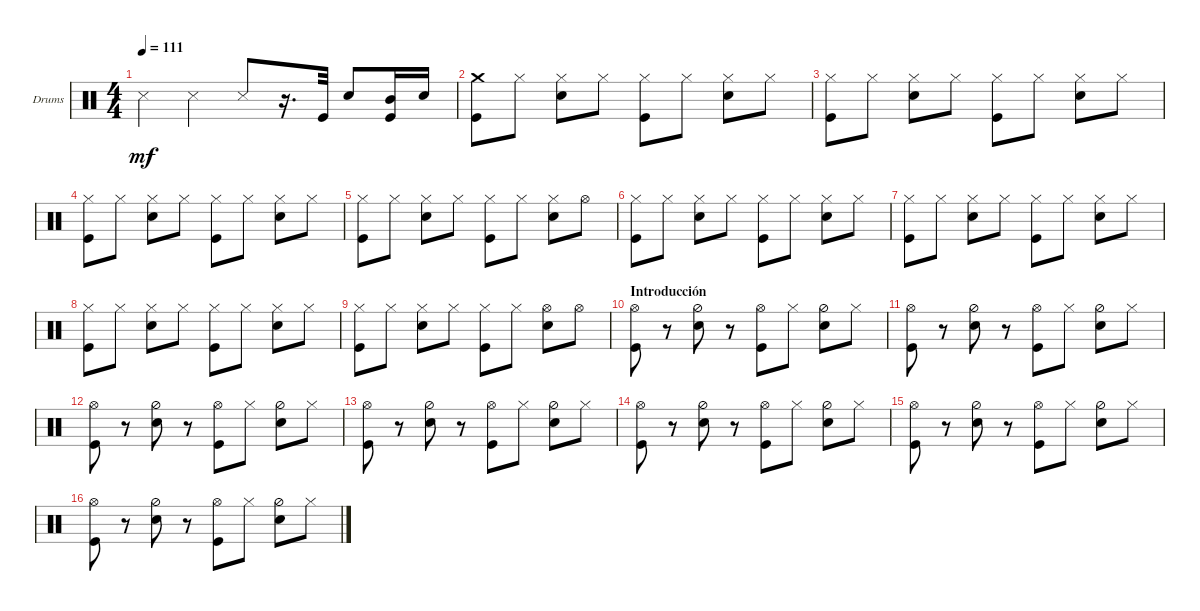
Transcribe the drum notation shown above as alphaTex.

\defaultSystemsLayout 4
\bracketExtendMode groupsimilarinstruments
\firstSystemTrackNameOrientation horizontal
\otherSystemsTrackNameOrientation horizontal
\track ("Drumkit" "Drums") {instrument percussion}
\staff {score}
\articulation defaults
\ts (4 4)
\tempo 111
\clef neutral
\scale
0.472222
\ks c "Snare (side stick) 3".4{dy mf} "Snare (side stick) 3".4 "Snare (side stick) 3".8
r.16{d} "Kick (hit)".32 "Snare (hit) 2".8 ("Mid Tom (hit)" "Kick (hit)").16 "Snare (hit) 2".16 |
\scale
0.263889 ("Kick (hit)" "Crash medium (hit)").8 "Hi-Hat (closed)".8 ("Snare (hit) 2" "Hi-Hat (closed)").8 "Hi-Hat (closed)".8 ("Kick (hit)" "Hi-Hat (closed)").8 "Hi-Hat (closed)".8 ("Snare (hit) 2" "Hi-Hat (closed)").8 "Hi-Hat (closed)".8 |
\scale
0.263889 ("Kick (hit)" "Hi-Hat (closed)").8 "Hi-Hat (closed)".8 ("Snare (hit) 2" "Hi-Hat (closed)").8 "Hi-Hat (closed)".8 ("Kick (hit)" "Hi-Hat (closed)").8 "Hi-Hat (closed)".8 ("Snare (hit) 2" "Hi-Hat (closed)").8 "Hi-Hat (closed)".8 |
\scale
0.333333 ("Kick (hit)" "Hi-Hat (closed)").8 "Hi-Hat (closed)".8 ("Snare (hit) 2" "Hi-Hat (closed)").8 "Hi-Hat (closed)".8 ("Kick (hit)" "Hi-Hat (closed)").8 "Hi-Hat (closed)".8 ("Snare (hit) 2" "Hi-Hat (closed)").8 "Hi-Hat (closed)".8 |
\scale
0.333333 ("Kick (hit)" "Hi-Hat (closed)").8 "Hi-Hat (closed)".8 ("Snare (hit) 2" "Hi-Hat (closed)").8 "Hi-Hat (closed)".8 ("Kick (hit)" "Hi-Hat (closed)").8 "Hi-Hat (closed)".8 ("Snare (hit) 2" "Hi-Hat (closed)").8 "Hi-Hat (open)".8 |
\scale
0.333333 ("Kick (hit)" "Hi-Hat (closed)").8 "Hi-Hat (closed)".8 ("Snare (hit) 2" "Hi-Hat (closed)").8 "Hi-Hat (closed)".8 ("Kick (hit)" "Hi-Hat (closed)").8 "Hi-Hat (closed)".8 ("Snare (hit) 2" "Hi-Hat (closed)").8 "Hi-Hat (closed)".8 |
\scale
0.333333 ("Kick (hit)" "Hi-Hat (closed)").8 "Hi-Hat (closed)".8 ("Snare (hit) 2" "Hi-Hat (closed)").8 "Hi-Hat (closed)".8 ("Kick (hit)" "Hi-Hat (closed)").8 "Hi-Hat (closed)".8 ("Snare (hit) 2" "Hi-Hat (closed)").8 "Hi-Hat (closed)".8 |
\scale
0.333333 ("Kick (hit)" "Hi-Hat (closed)").8 "Hi-Hat (closed)".8 ("Snare (hit) 2" "Hi-Hat (closed)").8 "Hi-Hat (closed)".8 ("Kick (hit)" "Hi-Hat (closed)").8 "Hi-Hat (closed)".8 ("Snare (hit) 2" "Hi-Hat (closed)").8 "Hi-Hat (closed)".8 |
\scale
0.333333 ("Kick (hit)" "Hi-Hat (closed)").8 "Hi-Hat (closed)".8 ("Snare (hit) 2" "Hi-Hat (closed)").8 "Hi-Hat (closed)".8 ("Kick (hit)" "Hi-Hat (closed)").8 "Hi-Hat (closed)".8 ("Snare (hit) 2" "Hi-Hat (open)").8 "Hi-Hat (open)".8 |
\section ("" "Introducción")
\scale
0.333333 ("Kick (hit)" "Hi-Hat (open)").8 r.8 ("Snare (hit) 2" "Hi-Hat (half)").8 r.8 ("Kick (hit)" "Hi-Hat (open)").8 "Hi-Hat (closed)".8 ("Snare (hit) 2" "Hi-Hat (half)").8 "Hi-Hat (closed)".8 |
\scale
0.333333 ("Kick (hit)" "Hi-Hat (open)").8 r.8 ("Snare (hit) 2" "Hi-Hat (half)").8 r.8 ("Kick (hit)" "Hi-Hat (open)").8 "Hi-Hat (closed)".8 ("Snare (hit) 2" "Hi-Hat (half)").8 "Hi-Hat (closed)".8 |
\scale
0.333333 ("Kick (hit)" "Hi-Hat (open)").8 r.8 ("Snare (hit) 2" "Hi-Hat (half)").8 r.8 ("Kick (hit)" "Hi-Hat (open)").8 "Hi-Hat (closed)".8 ("Snare (hit) 2" "Hi-Hat (half)").8 "Hi-Hat (closed)".8 |
\scale
0.333333 ("Kick (hit)" "Hi-Hat (open)").8 r.8 ("Snare (hit) 2" "Hi-Hat (half)").8 r.8 ("Kick (hit)" "Hi-Hat (open)").8 "Hi-Hat (closed)".8 ("Snare (hit) 2" "Hi-Hat (half)").8 "Hi-Hat (closed)".8 |
\scale
0.333333 ("Kick (hit)" "Hi-Hat (open)").8 r.8 ("Snare (hit) 2" "Hi-Hat (half)").8 r.8 ("Kick (hit)" "Hi-Hat (open)").8 "Hi-Hat (closed)".8 ("Snare (hit) 2" "Hi-Hat (half)").8 "Hi-Hat (closed)".8 |
\scale
0.333333 ("Kick (hit)" "Hi-Hat (open)").8 r.8 ("Snare (hit) 2" "Hi-Hat (half)").8 r.8 ("Kick (hit)" "Hi-Hat (open)").8 "Hi-Hat (closed)".8 ("Snare (hit) 2" "Hi-Hat (half)").8 "Hi-Hat (closed)".8 |
\scale
0.333333 ("Kick (hit)" "Hi-Hat (open)").8 r.8 ("Snare (hit) 2" "Hi-Hat (half)").8 r.8 ("Kick (hit)" "Hi-Hat (open)").8 "Hi-Hat (closed)".8 ("Snare (hit) 2" "Hi-Hat (half)").8 "Hi-Hat (closed)".8
